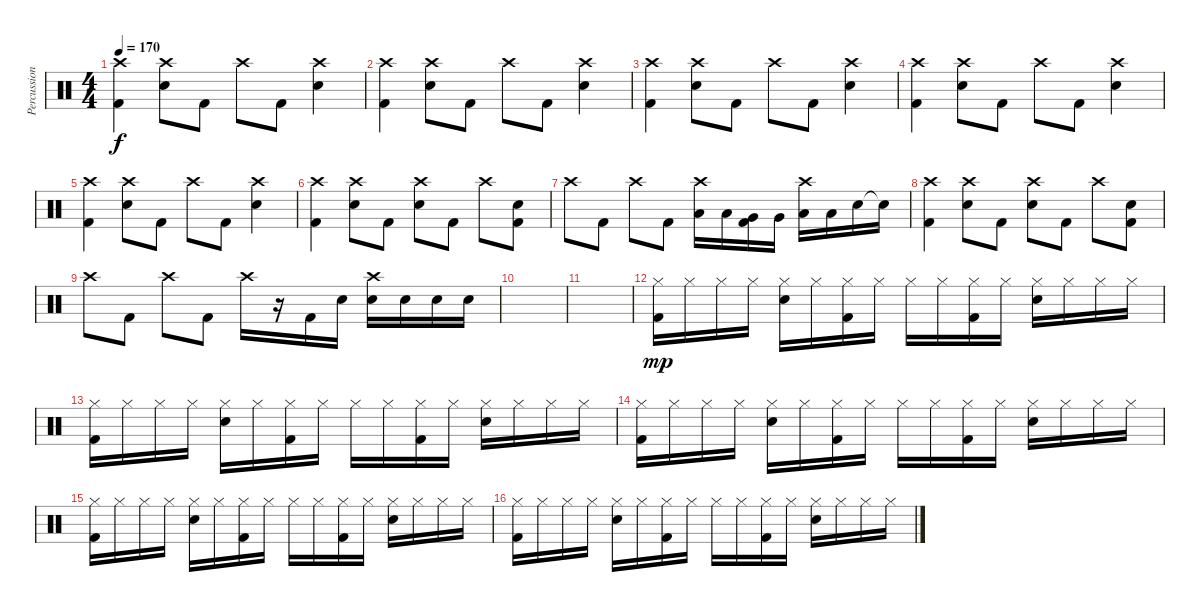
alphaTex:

\track ("Percussion" "Percussion") {instrument percussion}
\staff {score}
\articulation defaults
\ts (4 4)
\tempo 170
\clef neutral
\ks c
("Crash high (hit)" "Kick (hit) 2").4{dy f} ("Crash high (hit)" "Snare (hit) 2").8 "Kick (hit) 2".8 "Crash high (hit)".8 "Kick (hit) 2".8 ("Crash high (hit)" "Snare (hit) 2").4 |
("Crash high (hit)" "Kick (hit) 2").4 ("Crash high (hit)" "Snare (hit) 2").8 "Kick (hit) 2".8 "Crash high (hit)".8 "Kick (hit) 2".8 ("Crash high (hit)" "Snare (hit) 2").4 |
("Crash high (hit)" "Kick (hit) 2").4 ("Crash high (hit)" "Snare (hit) 2").8 "Kick (hit) 2".8 "Crash high (hit)".8 "Kick (hit) 2".8 ("Crash high (hit)" "Snare (hit) 2").4 |
("Crash high (hit)" "Kick (hit) 2").4 ("Crash high (hit)" "Snare (hit) 2").8 "Kick (hit) 2".8 "Crash high (hit)".8 "Kick (hit) 2".8 ("Crash high (hit)" "Snare (hit) 2").4 |
("Crash high (hit)" "Kick (hit) 2").4 ("Crash high (hit)" "Snare (hit) 2").8 "Kick (hit) 2".8 "Crash high (hit)".8 "Kick (hit) 2".8 ("Crash high (hit)" "Snare (hit) 2").4 |
("Crash high (hit)" "Kick (hit) 2").4 ("Crash high (hit)" "Snare (hit) 2").8 "Kick (hit) 2".8 ("Crash high (hit)" "Snare (hit) 2").8 "Kick (hit) 2".8 "Crash high (hit)".8 ("Snare (hit) 2" "Kick (hit) 2").8 |
"Crash high (hit)".8 "Kick (hit) 2".8 "Crash high (hit)".8 "Kick (hit) 2".8 ("Crash high (hit)" "Low Tom (hit)").16 "Low Tom (hit)".16 ("Very Low Tom (hit)" "Kick (hit) 2").16 "Very Low Tom (hit)".16 ("Crash high (hit)" "Low Floor Tom (hit)").16 "Low Floor Tom (hit)".16 "Snare (hit) 2".16 "Snare (hit) 2"{t}.16 |
("Crash high (hit)" "Kick (hit) 2").4 ("Crash high (hit)" "Snare (hit) 2").8 "Kick (hit) 2".8 ("Crash high (hit)" "Snare (hit) 2").8 "Kick (hit) 2".8 "Crash high (hit)".8 ("Snare (hit) 2" "Kick (hit) 2").8 |
"Crash high (hit)".8 "Kick (hit) 2".8 "Crash high (hit)".8 "Kick (hit) 2".8 "Crash high (hit)".16 r.16 "Kick (hit) 2".16 "Snare (hit) 2".16 ("Crash high (hit)" "Snare (hit) 2").16 "Snare (hit) 2".16 "Snare (hit) 2".16 "Snare (hit) 2".16 |
|
|
("Hi-Hat (closed)" "Kick (hit) 2").16{dy mp} "Hi-Hat (closed)".16 "Hi-Hat (closed)".16 "Hi-Hat (closed)".16 ("Hi-Hat (closed)" "Snare (hit) 2").16 "Hi-Hat (closed)".16 ("Hi-Hat (closed)" "Kick (hit) 2").16 "Hi-Hat (closed)".16 "Hi-Hat (closed)".16 "Hi-Hat (closed)".16 ("Hi-Hat (closed)" "Kick (hit) 2").16 "Hi-Hat (closed)".16 ("Hi-Hat (closed)" "Snare (hit) 2").16 "Hi-Hat (closed)".16 "Hi-Hat (closed)".16 "Hi-Hat (closed)".16 |
("Hi-Hat (closed)" "Kick (hit) 2").16 "Hi-Hat (closed)".16 "Hi-Hat (closed)".16 "Hi-Hat (closed)".16 ("Hi-Hat (closed)" "Snare (hit) 2").16 "Hi-Hat (closed)".16 ("Hi-Hat (closed)" "Kick (hit) 2").16 "Hi-Hat (closed)".16 "Hi-Hat (closed)".16 "Hi-Hat (closed)".16 ("Hi-Hat (closed)" "Kick (hit) 2").16 "Hi-Hat (closed)".16 ("Hi-Hat (closed)" "Snare (hit) 2").16 "Hi-Hat (closed)".16 "Hi-Hat (closed)".16 "Hi-Hat (closed)".16 |
("Hi-Hat (closed)" "Kick (hit) 2").16 "Hi-Hat (closed)".16 "Hi-Hat (closed)".16 "Hi-Hat (closed)".16 ("Hi-Hat (closed)" "Snare (hit) 2").16 "Hi-Hat (closed)".16 ("Hi-Hat (closed)" "Kick (hit) 2").16 "Hi-Hat (closed)".16 "Hi-Hat (closed)".16 "Hi-Hat (closed)".16 ("Hi-Hat (closed)" "Kick (hit) 2").16 "Hi-Hat (closed)".16 ("Hi-Hat (closed)" "Snare (hit) 2").16 "Hi-Hat (closed)".16 "Hi-Hat (closed)".16 "Hi-Hat (closed)".16 |
("Hi-Hat (closed)" "Kick (hit) 2").16 "Hi-Hat (closed)".16 "Hi-Hat (closed)".16 "Hi-Hat (closed)".16 ("Hi-Hat (closed)" "Snare (hit) 2").16 "Hi-Hat (closed)".16 ("Hi-Hat (closed)" "Kick (hit) 2").16 "Hi-Hat (closed)".16 "Hi-Hat (closed)".16 "Hi-Hat (closed)".16 ("Hi-Hat (closed)" "Kick (hit) 2").16 "Hi-Hat (closed)".16 ("Hi-Hat (closed)" "Snare (hit) 2").16 "Hi-Hat (closed)".16 "Hi-Hat (closed)".16 "Hi-Hat (closed)".16 |
("Hi-Hat (closed)" "Kick (hit) 2").16 "Hi-Hat (closed)".16 "Hi-Hat (closed)".16 "Hi-Hat (closed)".16 ("Hi-Hat (closed)" "Snare (hit) 2").16 "Hi-Hat (closed)".16 ("Hi-Hat (closed)" "Kick (hit) 2").16 "Hi-Hat (closed)".16 "Hi-Hat (closed)".16 "Hi-Hat (closed)".16 ("Hi-Hat (closed)" "Kick (hit) 2").16 "Hi-Hat (closed)".16 ("Hi-Hat (closed)" "Snare (hit) 2").16 "Hi-Hat (closed)".16 "Hi-Hat (closed)".16 "Hi-Hat (closed)".16
